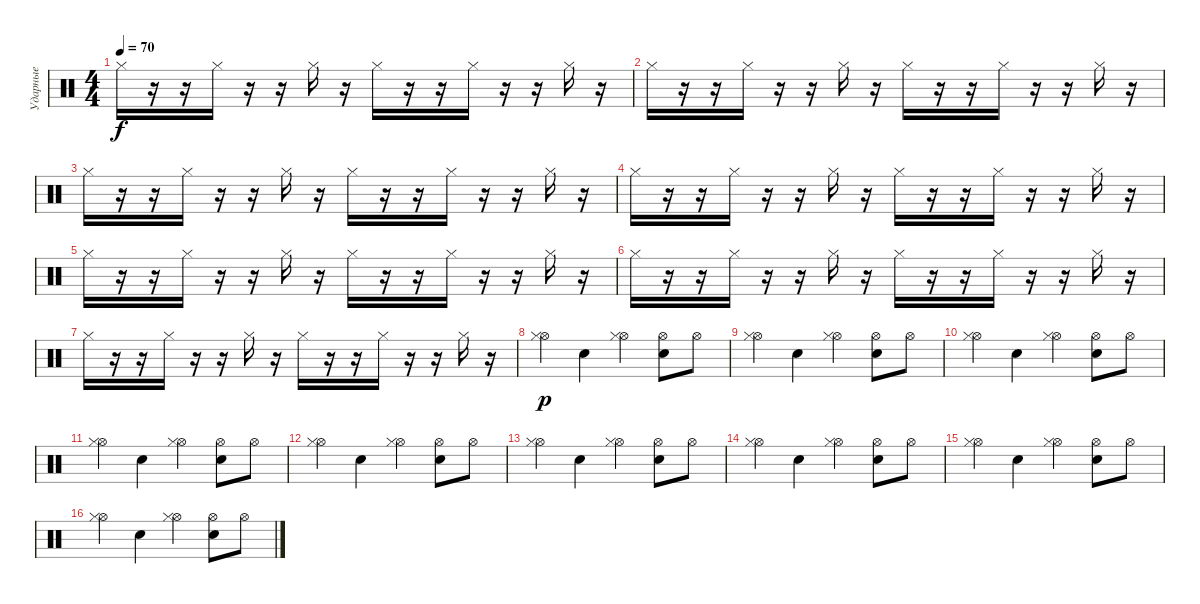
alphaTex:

\track ("Ударные" "Ударные") {instrument percussion}
\staff {score}
\articulation defaults
\ts (4 4)
\tempo 70
\clef neutral
\ks c "Hi-Hat (closed)".16{dy f}
r.16 r.16 "Hi-Hat (closed)".16 r.16 r.16 "Hi-Hat (closed)".16 r.16 "Hi-Hat (closed)".16 r.16 r.16 "Hi-Hat (closed)".16 r.16 r.16 "Hi-Hat (closed)".16 r.16 |
"Hi-Hat (closed)".16 r.16 r.16 "Hi-Hat (closed)".16 r.16 r.16 "Hi-Hat (closed)".16 r.16 "Hi-Hat (closed)".16 r.16 r.16 "Hi-Hat (closed)".16 r.16 r.16 "Hi-Hat (closed)".16 r.16 |
"Hi-Hat (closed)".16 r.16 r.16 "Hi-Hat (closed)".16 r.16 r.16 "Hi-Hat (closed)".16 r.16 "Hi-Hat (closed)".16 r.16 r.16 "Hi-Hat (closed)".16 r.16 r.16 "Hi-Hat (closed)".16 r.16 |
"Hi-Hat (closed)".16 r.16 r.16 "Hi-Hat (closed)".16 r.16 r.16 "Hi-Hat (closed)".16 r.16 "Hi-Hat (closed)".16 r.16 r.16 "Hi-Hat (closed)".16 r.16 r.16 "Hi-Hat (closed)".16 r.16 |
"Hi-Hat (closed)".16 r.16 r.16 "Hi-Hat (closed)".16 r.16 r.16 "Hi-Hat (closed)".16 r.16 "Hi-Hat (closed)".16 r.16 r.16 "Hi-Hat (closed)".16 r.16 r.16 "Hi-Hat (closed)".16 r.16 |
"Hi-Hat (closed)".16 r.16 r.16 "Hi-Hat (closed)".16 r.16 r.16 "Hi-Hat (closed)".16 r.16 "Hi-Hat (closed)".16 r.16 r.16 "Hi-Hat (closed)".16 r.16 r.16 "Hi-Hat (closed)".16 r.16 |
"Hi-Hat (closed)".16 r.16 r.16 "Hi-Hat (closed)".16 r.16 r.16 "Hi-Hat (closed)".16 r.16 "Hi-Hat (closed)".16 r.16 r.16 "Hi-Hat (closed)".16 r.16 r.16 "Hi-Hat (closed)".16 r.16 |
("Hi-Hat (open)" "Hi-Hat (closed)").4{dy p} "Electric Snare (hit)".4 ("Hi-Hat (open)" "Hi-Hat (closed)").4 ("Hi-Hat (open)" "Electric Snare (hit)").8 "Hi-Hat (open)".8 |
("Hi-Hat (open)" "Hi-Hat (closed)").4 "Electric Snare (hit)".4 ("Hi-Hat (open)" "Hi-Hat (closed)").4 ("Hi-Hat (open)" "Electric Snare (hit)").8 "Hi-Hat (open)".8 |
("Hi-Hat (open)" "Hi-Hat (closed)").4 "Electric Snare (hit)".4 ("Hi-Hat (open)" "Hi-Hat (closed)").4 ("Hi-Hat (open)" "Electric Snare (hit)").8 "Hi-Hat (open)".8 |
("Hi-Hat (open)" "Hi-Hat (closed)").4 "Electric Snare (hit)".4 ("Hi-Hat (open)" "Hi-Hat (closed)").4 ("Hi-Hat (open)" "Electric Snare (hit)").8 "Hi-Hat (open)".8 |
("Hi-Hat (open)" "Hi-Hat (closed)").4 "Electric Snare (hit)".4 ("Hi-Hat (open)" "Hi-Hat (closed)").4 ("Hi-Hat (open)" "Electric Snare (hit)").8 "Hi-Hat (open)".8 |
("Hi-Hat (open)" "Hi-Hat (closed)").4 "Electric Snare (hit)".4 ("Hi-Hat (open)" "Hi-Hat (closed)").4 ("Hi-Hat (open)" "Electric Snare (hit)").8 "Hi-Hat (open)".8 |
("Hi-Hat (open)" "Hi-Hat (closed)").4 "Electric Snare (hit)".4 ("Hi-Hat (open)" "Hi-Hat (closed)").4 ("Hi-Hat (open)" "Electric Snare (hit)").8 "Hi-Hat (open)".8 |
("Hi-Hat (open)" "Hi-Hat (closed)").4 "Electric Snare (hit)".4 ("Hi-Hat (open)" "Hi-Hat (closed)").4 ("Hi-Hat (open)" "Electric Snare (hit)").8 "Hi-Hat (open)".8 |
("Hi-Hat (open)" "Hi-Hat (closed)").4 "Electric Snare (hit)".4 ("Hi-Hat (open)" "Hi-Hat (closed)").4 ("Hi-Hat (open)" "Electric Snare (hit)").8 "Hi-Hat (open)".8
